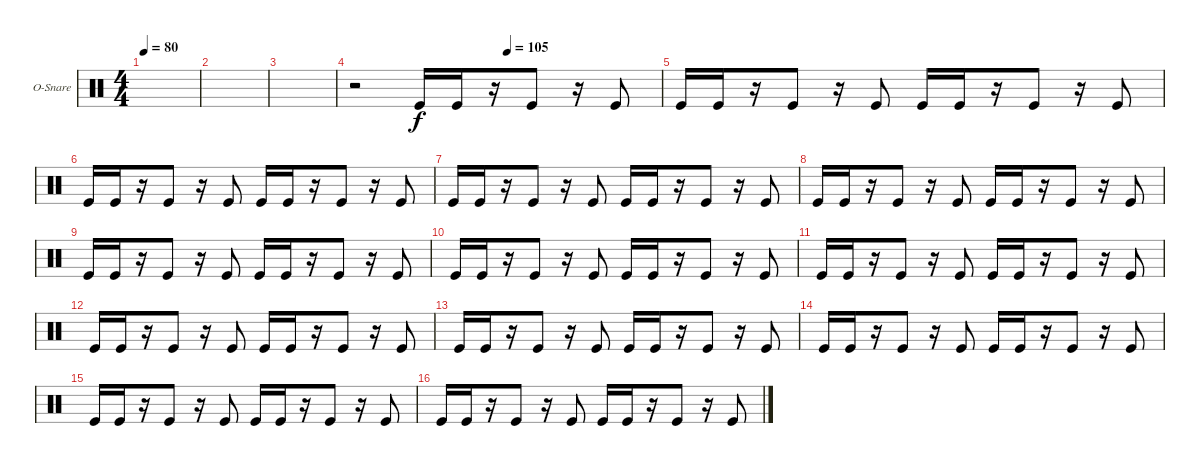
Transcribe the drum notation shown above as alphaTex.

\bracketExtendMode groupsimilarinstruments
\firstSystemTrackNameOrientation horizontal
\otherSystemsTrackNameOrientation horizontal
\track ("Snare" "O-Snare") {instrument percussion}
\staff {score}
\articulation defaults
\ts (4 4)
\tempo 80
\clef neutral
\scale
0.333333
\ks c
|
\scale
0.333333 |
\scale
0.333333 |
\tempo (105 0.5)
\scale
0.333333 r.2 "Kick (hit)".16 "Kick (hit)".16 r.16 "Kick (hit)".8 r.16 "Kick (hit)".8 |
\scale
0.333333 "Kick (hit)".16 "Kick (hit)".16 r.16 "Kick (hit)".8 r.16 "Kick (hit)".8 "Kick (hit)".16 "Kick (hit)".16 r.16 "Kick (hit)".8 r.16 "Kick (hit)".8 |
\scale
0.333333 "Kick (hit)".16 "Kick (hit)".16 r.16 "Kick (hit)".8 r.16 "Kick (hit)".8 "Kick (hit)".16 "Kick (hit)".16 r.16 "Kick (hit)".8 r.16 "Kick (hit)".8 |
\scale
0.333333 "Kick (hit)".16 "Kick (hit)".16 r.16 "Kick (hit)".8 r.16 "Kick (hit)".8 "Kick (hit)".16 "Kick (hit)".16 r.16 "Kick (hit)".8 r.16 "Kick (hit)".8 |
\scale
0.333333 "Kick (hit)".16 "Kick (hit)".16 r.16 "Kick (hit)".8 r.16 "Kick (hit)".8 "Kick (hit)".16 "Kick (hit)".16 r.16 "Kick (hit)".8 r.16 "Kick (hit)".8 |
\scale
0.333333 "Kick (hit)".16 "Kick (hit)".16 r.16 "Kick (hit)".8 r.16 "Kick (hit)".8 "Kick (hit)".16 "Kick (hit)".16 r.16 "Kick (hit)".8 r.16 "Kick (hit)".8 |
\scale
0.333333 "Kick (hit)".16 "Kick (hit)".16 r.16 "Kick (hit)".8 r.16 "Kick (hit)".8 "Kick (hit)".16 "Kick (hit)".16 r.16 "Kick (hit)".8 r.16 "Kick (hit)".8 |
\scale
0.333333 "Kick (hit)".16 "Kick (hit)".16 r.16 "Kick (hit)".8 r.16 "Kick (hit)".8 "Kick (hit)".16 "Kick (hit)".16 r.16 "Kick (hit)".8 r.16 "Kick (hit)".8 |
\scale
0.333333 "Kick (hit)".16 "Kick (hit)".16 r.16 "Kick (hit)".8 r.16 "Kick (hit)".8 "Kick (hit)".16 "Kick (hit)".16 r.16 "Kick (hit)".8 r.16 "Kick (hit)".8 |
\scale
0.333333 "Kick (hit)".16 "Kick (hit)".16 r.16 "Kick (hit)".8 r.16 "Kick (hit)".8 "Kick (hit)".16 "Kick (hit)".16 r.16 "Kick (hit)".8 r.16 "Kick (hit)".8 |
\scale
0.333333 "Kick (hit)".16 "Kick (hit)".16 r.16 "Kick (hit)".8 r.16 "Kick (hit)".8 "Kick (hit)".16 "Kick (hit)".16 r.16 "Kick (hit)".8 r.16 "Kick (hit)".8 |
\scale
0.333333 "Kick (hit)".16 "Kick (hit)".16 r.16 "Kick (hit)".8 r.16 "Kick (hit)".8 "Kick (hit)".16 "Kick (hit)".16 r.16 "Kick (hit)".8 r.16 "Kick (hit)".8 |
\scale
0.333333 "Kick (hit)".16 "Kick (hit)".16 r.16 "Kick (hit)".8 r.16 "Kick (hit)".8 "Kick (hit)".16 "Kick (hit)".16 r.16 "Kick (hit)".8 r.16 "Kick (hit)".8
